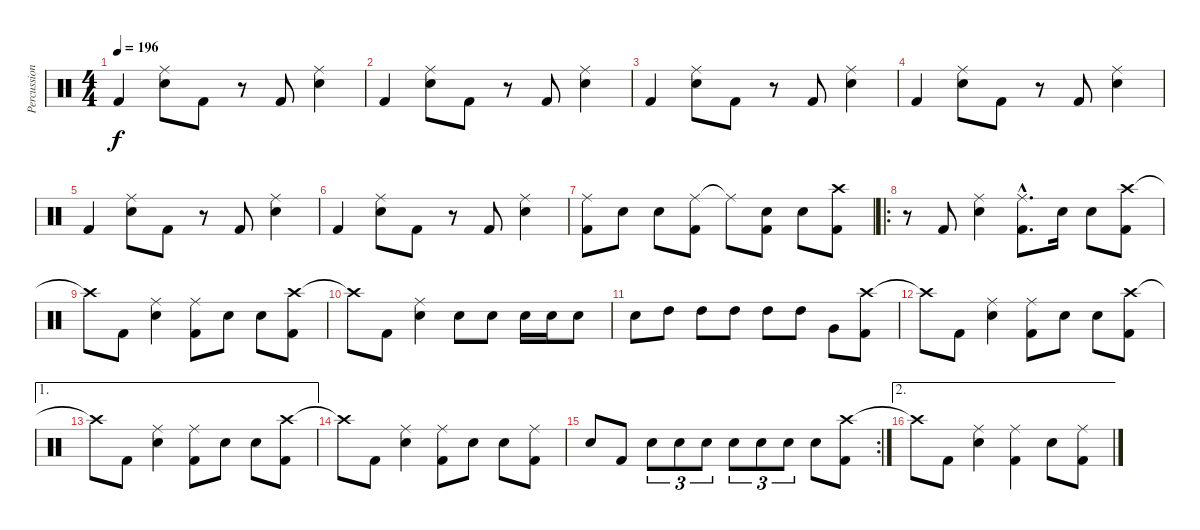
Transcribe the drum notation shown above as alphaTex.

\track ("Percussion" "Percussion") {instrument percussion}
\staff {score}
\articulation defaults
\ts (4 4)
\tempo 196
\clef neutral
\ks c "Kick (hit) 2".4{dy f}
("Ride (middle)" "Snare (hit) 2").8 "Kick (hit) 2".8 r.8 "Kick (hit) 2".8 ("Ride (middle)" "Snare (hit) 2").4 |
"Kick (hit) 2".4 ("Ride (middle)" "Snare (hit) 2").8 "Kick (hit) 2".8 r.8 "Kick (hit) 2".8 ("Ride (middle)" "Snare (hit) 2").4 |
"Kick (hit) 2".4 ("Ride (middle)" "Snare (hit) 2").8 "Kick (hit) 2".8 r.8 "Kick (hit) 2".8 ("Ride (middle)" "Snare (hit) 2").4 |
"Kick (hit) 2".4 ("Ride (middle)" "Snare (hit) 2").8 "Kick (hit) 2".8 r.8 "Kick (hit) 2".8 ("Ride (middle)" "Snare (hit) 2").4 |
"Kick (hit) 2".4 ("Ride (middle)" "Snare (hit) 2").8 "Kick (hit) 2".8 r.8 "Kick (hit) 2".8 ("Ride (middle)" "Snare (hit) 2").4 |
"Kick (hit) 2".4 ("Ride (middle)" "Snare (hit) 2").8 "Kick (hit) 2".8 r.8 "Kick (hit) 2".8 ("Ride (middle)" "Snare (hit) 2").4 |
("Ride (middle)" "Kick (hit) 2").8 "Snare (hit) 2".8 "Snare (hit) 2".8 ("Ride (middle)" "Kick (hit) 2").8 "Ride (middle)"{t}.8 ("Snare (hit) 2" "Kick (hit) 2").8 "Snare (hit) 2".8 ("Crash high (hit)" "Kick (hit) 2").8 |
\ro
r.8 "Kick (hit) 2".8 ("Ride (middle)" "Snare (hit) 2").4 ("Ride (middle)"{hac} "Kick (hit) 2"{hac}).8{d} "Snare (hit) 2".16 "Snare (hit) 2".8 ("Crash high (hit)" "Kick (hit) 2").8 |
"Crash high (hit)"{t}.8 "Kick (hit) 2".8 ("Ride (middle)" "Snare (hit) 2").4 ("Ride (middle)" "Kick (hit) 2").8 "Snare (hit) 2".8 "Snare (hit) 2".8 ("Crash high (hit)" "Kick (hit) 2").8 |
"Crash high (hit)"{t}.8 "Kick (hit) 2".8 ("Ride (middle)" "Snare (hit) 2").4 "Snare (hit) 2".8 "Snare (hit) 2".8 "Snare (hit) 2".16 "Snare (hit) 2".16 "Snare (hit) 2".8 |
"Snare (hit) 2".8 "High Tom (hit)".8 "High Tom (hit)".8 "High Tom (hit)".8 "High Tom (hit)".8 "High Tom (hit)".8 "Very Low Tom (hit)".8 ("Crash high (hit)" "Kick (hit) 2").8 |
"Crash high (hit)"{t}.8 "Kick (hit) 2".8 ("Ride (middle)" "Snare (hit) 2").4 ("Ride (middle)" "Kick (hit) 2").8 "Snare (hit) 2".8 "Snare (hit) 2".8 ("Crash high (hit)" "Kick (hit) 2").8 |
\ae 1 "Crash high (hit)"{t}.8 "Kick (hit) 2".8
("Ride (middle)" "Snare (hit) 2").4 ("Ride (middle)" "Kick (hit) 2").8 "Snare (hit) 2".8 "Snare (hit) 2".8 ("Crash high (hit)" "Kick (hit) 2").8 |
"Crash high (hit)"{t}.8 "Kick (hit) 2".8 ("Ride (middle)" "Snare (hit) 2").4 ("Ride (middle)" "Kick (hit) 2").8 "Snare (hit) 2".8 "Snare (hit) 2".8 ("Ride (middle)" "Kick (hit) 2").8 |
\rc 2 "Snare (hit) 2".8 "Kick (hit) 2".8 "Snare (hit) 2".8{tu (3 2)} "Snare (hit) 2".8{tu (3 2)} "Snare (hit) 2".8{tu (3 2)} "Snare (hit) 2".8{tu (3 2)} "Snare (hit) 2".8{tu (3 2)} "Snare (hit) 2".8{tu (3 2)} "Snare (hit) 2".8
("Crash high (hit)" "Kick (hit) 2").8 |
\ae 2 "Crash high (hit)"{t}.8 "Kick (hit) 2".8
("Ride (middle)" "Snare (hit) 2").4 ("Ride (middle)" "Kick (hit) 2").4 "Snare (hit) 2".8 ("Ride (middle)" "Kick (hit) 2").8
